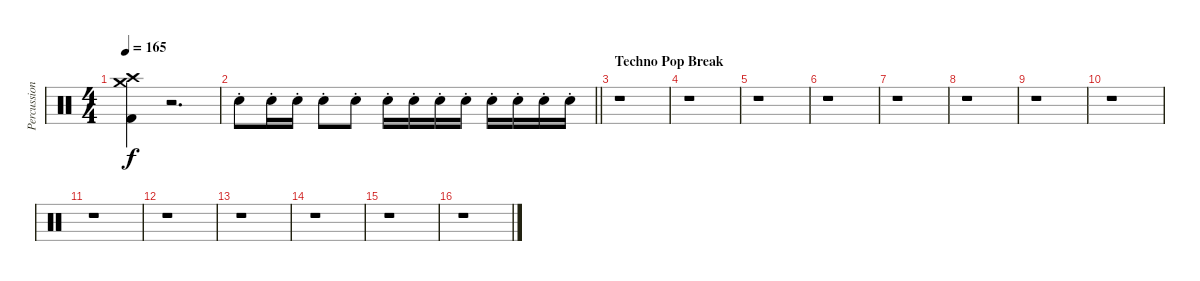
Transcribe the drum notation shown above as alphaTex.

\track ("Percussion" "Percussion") {instrument percussion}
\staff {score}
\articulation defaults
\ts (4 4)
\tempo 165
\clef neutral
\ks c
("Crash medium (hit)" "Crash high (hit)" "Kick (hit) 2").4{dy f} r.2{d} |
\barLineRight lightlight "Electric Snare (hit)"{st}.8 "Electric Snare (hit)"{st}.16 "Electric Snare (hit)"{st}.16 "Electric Snare (hit)"{st}.8 "Electric Snare (hit)"{st}.8 "Electric Snare (hit)"{st}.16 "Electric Snare (hit)"{st}.16 "Electric Snare (hit)"{st}.16 "Electric Snare (hit)"{st}.16 "Electric Snare (hit)"{st}.16 "Electric Snare (hit)"{st}.16 "Electric Snare (hit)"{st}.16 "Electric Snare (hit)"{st}.16
|
\section ("" "Techno Pop Break")
r.1 |
r.1 |
r.1 |
r.1 |
r.1 |
r.1 |
r.1 |
r.1 |
r.1 |
r.1 |
r.1 |
r.1 |
r.1 |
r.1
